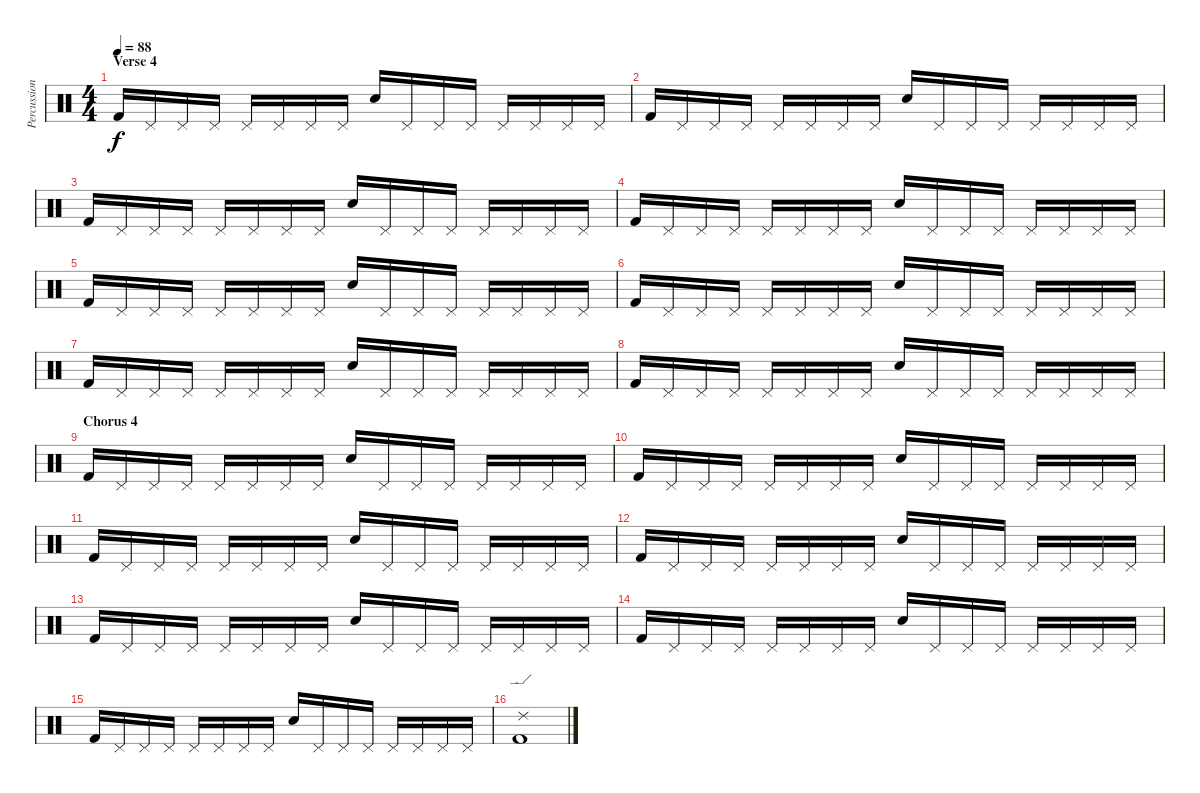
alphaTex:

\track ("Percussion" "Percussion") {instrument percussion}
\staff {score}
\articulation defaults
\ts (4 4)
\section ("" "Verse 4")
\tempo 88
\clef neutral
\ks c "Kick (hit) 2".16{dy f} "Pedal Hi-Hat (hit)".16 "Pedal Hi-Hat (hit)".16 "Pedal Hi-Hat (hit)".16 "Pedal Hi-Hat (hit)".16 "Pedal Hi-Hat (hit)".16 "Pedal Hi-Hat (hit)".16 "Pedal Hi-Hat (hit)".16 "Electric Snare (hit)".16 "Pedal Hi-Hat (hit)".16 "Pedal Hi-Hat (hit)".16 "Pedal Hi-Hat (hit)".16 "Pedal Hi-Hat (hit)".16 "Pedal Hi-Hat (hit)".16 "Pedal Hi-Hat (hit)".16 "Pedal Hi-Hat (hit)".16
|
"Kick (hit) 2".16 "Pedal Hi-Hat (hit)".16 "Pedal Hi-Hat (hit)".16 "Pedal Hi-Hat (hit)".16 "Pedal Hi-Hat (hit)".16 "Pedal Hi-Hat (hit)".16 "Pedal Hi-Hat (hit)".16 "Pedal Hi-Hat (hit)".16 "Electric Snare (hit)".16 "Pedal Hi-Hat (hit)".16 "Pedal Hi-Hat (hit)".16 "Pedal Hi-Hat (hit)".16 "Pedal Hi-Hat (hit)".16 "Pedal Hi-Hat (hit)".16 "Pedal Hi-Hat (hit)".16 "Pedal Hi-Hat (hit)".16 |
"Kick (hit) 2".16 "Pedal Hi-Hat (hit)".16 "Pedal Hi-Hat (hit)".16 "Pedal Hi-Hat (hit)".16 "Pedal Hi-Hat (hit)".16 "Pedal Hi-Hat (hit)".16 "Pedal Hi-Hat (hit)".16 "Pedal Hi-Hat (hit)".16 "Electric Snare (hit)".16 "Pedal Hi-Hat (hit)".16 "Pedal Hi-Hat (hit)".16 "Pedal Hi-Hat (hit)".16 "Pedal Hi-Hat (hit)".16 "Pedal Hi-Hat (hit)".16 "Pedal Hi-Hat (hit)".16 "Pedal Hi-Hat (hit)".16 |
"Kick (hit) 2".16 "Pedal Hi-Hat (hit)".16 "Pedal Hi-Hat (hit)".16 "Pedal Hi-Hat (hit)".16 "Pedal Hi-Hat (hit)".16 "Pedal Hi-Hat (hit)".16 "Pedal Hi-Hat (hit)".16 "Pedal Hi-Hat (hit)".16 "Electric Snare (hit)".16 "Pedal Hi-Hat (hit)".16 "Pedal Hi-Hat (hit)".16 "Pedal Hi-Hat (hit)".16 "Pedal Hi-Hat (hit)".16 "Pedal Hi-Hat (hit)".16 "Pedal Hi-Hat (hit)".16 "Pedal Hi-Hat (hit)".16 |
"Kick (hit) 2".16 "Pedal Hi-Hat (hit)".16 "Pedal Hi-Hat (hit)".16 "Pedal Hi-Hat (hit)".16 "Pedal Hi-Hat (hit)".16 "Pedal Hi-Hat (hit)".16 "Pedal Hi-Hat (hit)".16 "Pedal Hi-Hat (hit)".16 "Electric Snare (hit)".16 "Pedal Hi-Hat (hit)".16 "Pedal Hi-Hat (hit)".16 "Pedal Hi-Hat (hit)".16 "Pedal Hi-Hat (hit)".16 "Pedal Hi-Hat (hit)".16 "Pedal Hi-Hat (hit)".16 "Pedal Hi-Hat (hit)".16 |
"Kick (hit) 2".16 "Pedal Hi-Hat (hit)".16 "Pedal Hi-Hat (hit)".16 "Pedal Hi-Hat (hit)".16 "Pedal Hi-Hat (hit)".16 "Pedal Hi-Hat (hit)".16 "Pedal Hi-Hat (hit)".16 "Pedal Hi-Hat (hit)".16 "Electric Snare (hit)".16 "Pedal Hi-Hat (hit)".16 "Pedal Hi-Hat (hit)".16 "Pedal Hi-Hat (hit)".16 "Pedal Hi-Hat (hit)".16 "Pedal Hi-Hat (hit)".16 "Pedal Hi-Hat (hit)".16 "Pedal Hi-Hat (hit)".16 |
"Kick (hit) 2".16 "Pedal Hi-Hat (hit)".16 "Pedal Hi-Hat (hit)".16 "Pedal Hi-Hat (hit)".16 "Pedal Hi-Hat (hit)".16 "Pedal Hi-Hat (hit)".16 "Pedal Hi-Hat (hit)".16 "Pedal Hi-Hat (hit)".16 "Electric Snare (hit)".16 "Pedal Hi-Hat (hit)".16 "Pedal Hi-Hat (hit)".16 "Pedal Hi-Hat (hit)".16 "Pedal Hi-Hat (hit)".16 "Pedal Hi-Hat (hit)".16 "Pedal Hi-Hat (hit)".16 "Pedal Hi-Hat (hit)".16 |
"Kick (hit) 2".16 "Pedal Hi-Hat (hit)".16 "Pedal Hi-Hat (hit)".16 "Pedal Hi-Hat (hit)".16 "Pedal Hi-Hat (hit)".16 "Pedal Hi-Hat (hit)".16 "Pedal Hi-Hat (hit)".16 "Pedal Hi-Hat (hit)".16 "Electric Snare (hit)".16 "Pedal Hi-Hat (hit)".16 "Pedal Hi-Hat (hit)".16 "Pedal Hi-Hat (hit)".16 "Pedal Hi-Hat (hit)".16 "Pedal Hi-Hat (hit)".16 "Pedal Hi-Hat (hit)".16 "Pedal Hi-Hat (hit)".16 |
\section ("" "Chorus 4")
"Kick (hit) 2".16 "Pedal Hi-Hat (hit)".16 "Pedal Hi-Hat (hit)".16 "Pedal Hi-Hat (hit)".16 "Pedal Hi-Hat (hit)".16 "Pedal Hi-Hat (hit)".16 "Pedal Hi-Hat (hit)".16 "Pedal Hi-Hat (hit)".16 "Electric Snare (hit)".16 "Pedal Hi-Hat (hit)".16 "Pedal Hi-Hat (hit)".16 "Pedal Hi-Hat (hit)".16 "Pedal Hi-Hat (hit)".16 "Pedal Hi-Hat (hit)".16 "Pedal Hi-Hat (hit)".16 "Pedal Hi-Hat (hit)".16 |
"Kick (hit) 2".16 "Pedal Hi-Hat (hit)".16 "Pedal Hi-Hat (hit)".16 "Pedal Hi-Hat (hit)".16 "Pedal Hi-Hat (hit)".16 "Pedal Hi-Hat (hit)".16 "Pedal Hi-Hat (hit)".16 "Pedal Hi-Hat (hit)".16 "Electric Snare (hit)".16 "Pedal Hi-Hat (hit)".16 "Pedal Hi-Hat (hit)".16 "Pedal Hi-Hat (hit)".16 "Pedal Hi-Hat (hit)".16 "Pedal Hi-Hat (hit)".16 "Pedal Hi-Hat (hit)".16 "Pedal Hi-Hat (hit)".16 |
"Kick (hit) 2".16 "Pedal Hi-Hat (hit)".16 "Pedal Hi-Hat (hit)".16 "Pedal Hi-Hat (hit)".16 "Pedal Hi-Hat (hit)".16 "Pedal Hi-Hat (hit)".16 "Pedal Hi-Hat (hit)".16 "Pedal Hi-Hat (hit)".16 "Electric Snare (hit)".16 "Pedal Hi-Hat (hit)".16 "Pedal Hi-Hat (hit)".16 "Pedal Hi-Hat (hit)".16 "Pedal Hi-Hat (hit)".16 "Pedal Hi-Hat (hit)".16 "Pedal Hi-Hat (hit)".16 "Pedal Hi-Hat (hit)".16 |
"Kick (hit) 2".16 "Pedal Hi-Hat (hit)".16 "Pedal Hi-Hat (hit)".16 "Pedal Hi-Hat (hit)".16 "Pedal Hi-Hat (hit)".16 "Pedal Hi-Hat (hit)".16 "Pedal Hi-Hat (hit)".16 "Pedal Hi-Hat (hit)".16 "Electric Snare (hit)".16 "Pedal Hi-Hat (hit)".16 "Pedal Hi-Hat (hit)".16 "Pedal Hi-Hat (hit)".16 "Pedal Hi-Hat (hit)".16 "Pedal Hi-Hat (hit)".16 "Pedal Hi-Hat (hit)".16 "Pedal Hi-Hat (hit)".16 |
"Kick (hit) 2".16 "Pedal Hi-Hat (hit)".16 "Pedal Hi-Hat (hit)".16 "Pedal Hi-Hat (hit)".16 "Pedal Hi-Hat (hit)".16 "Pedal Hi-Hat (hit)".16 "Pedal Hi-Hat (hit)".16 "Pedal Hi-Hat (hit)".16 "Electric Snare (hit)".16 "Pedal Hi-Hat (hit)".16 "Pedal Hi-Hat (hit)".16 "Pedal Hi-Hat (hit)".16 "Pedal Hi-Hat (hit)".16 "Pedal Hi-Hat (hit)".16 "Pedal Hi-Hat (hit)".16 "Pedal Hi-Hat (hit)".16 |
"Kick (hit) 2".16 "Pedal Hi-Hat (hit)".16 "Pedal Hi-Hat (hit)".16 "Pedal Hi-Hat (hit)".16 "Pedal Hi-Hat (hit)".16 "Pedal Hi-Hat (hit)".16 "Pedal Hi-Hat (hit)".16 "Pedal Hi-Hat (hit)".16 "Electric Snare (hit)".16 "Pedal Hi-Hat (hit)".16 "Pedal Hi-Hat (hit)".16 "Pedal Hi-Hat (hit)".16 "Pedal Hi-Hat (hit)".16 "Pedal Hi-Hat (hit)".16 "Pedal Hi-Hat (hit)".16 "Pedal Hi-Hat (hit)".16 |
"Kick (hit) 2".16 "Pedal Hi-Hat (hit)".16 "Pedal Hi-Hat (hit)".16 "Pedal Hi-Hat (hit)".16 "Pedal Hi-Hat (hit)".16 "Pedal Hi-Hat (hit)".16 "Pedal Hi-Hat (hit)".16 "Pedal Hi-Hat (hit)".16 "Electric Snare (hit)".16 "Pedal Hi-Hat (hit)".16 "Pedal Hi-Hat (hit)".16 "Pedal Hi-Hat (hit)".16 "Pedal Hi-Hat (hit)".16 "Pedal Hi-Hat (hit)".16 "Pedal Hi-Hat (hit)".16 "Pedal Hi-Hat (hit)".16 |
("Ride (edge) 2" "Kick (hit) 2").1
